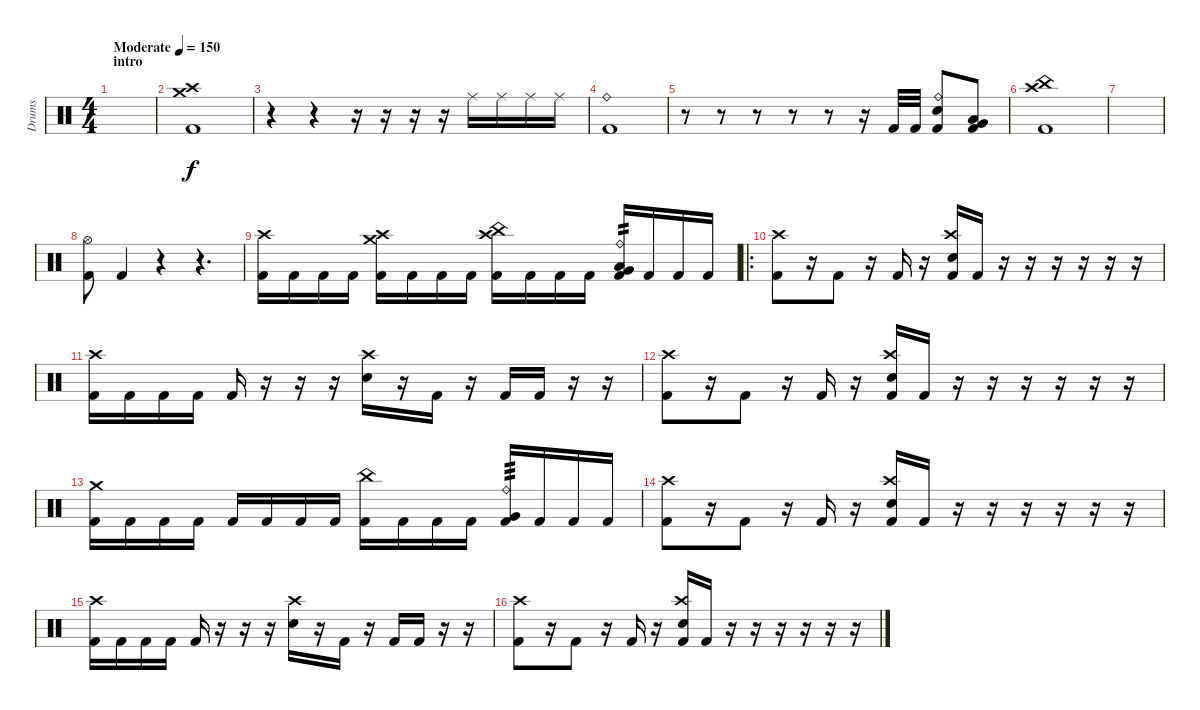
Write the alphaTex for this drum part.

\track ("Drums" "Drums") {instrument percussion}
\staff {score}
\articulation defaults
\ts (4 4)
\section ("" "intro")
\tempo (150 "Moderate")
\clef neutral
\ks c
|
("Kick (hit) 2" "Crash medium (hit)" "Crash high (hit)").1 |
r.4 r.4 r.16 r.16 r.16 r.16 "Ride (middle)".16 "Ride (middle)".16 "Ride (middle)".16 "Ride (middle)".16 |
("Kick (hit) 2" "Ride (bell)").1 |
r.8 r.8 r.8 r.8 r.8 r.16 "Kick (hit) 2".32 "Kick (hit) 2".32 ("Electric Snare (hit)" "Kick (hit) 2" "Ride (bell)").8 ("Kick (hit) 2" "Low Tom (hit)" "Very Low Tom (hit)").8 |
("Kick (hit) 2" "China (hit)" "Crash high (hit)").1 |
|
("Kick (hit) 2" "Hi-Hat (open)").8 "Kick (hit) 2".4 r.4 r.4{d} |
("Kick (hit) 2" "Crash high (hit)").16 "Kick (hit) 2".16 "Kick (hit) 2".16 "Kick (hit) 2".16 ("Kick (hit) 2" "Crash medium (hit)" "Crash high (hit)").16 "Kick (hit) 2".16 "Kick (hit) 2".16 "Kick (hit) 2".16 ("Kick (hit) 2" "China (hit)" "Crash high (hit)").16 "Kick (hit) 2".16 "Kick (hit) 2".16 "Kick (hit) 2".16 ("Kick (hit) 2" "Ride (bell)" "Low Tom (hit)" "Very Low Tom (hit)").16{tp 2} "Kick (hit) 2".16 "Kick (hit) 2".16 "Kick (hit) 2".16 |
\ro
("Kick (hit) 2" "Crash high (hit)").8 r.16 "Kick (hit) 2".8 r.16 "Kick (hit) 2".16 r.16 ("Electric Snare (hit)" "Kick (hit) 2" "Crash high (hit)").16 "Kick (hit) 2".16 r.16 r.16 r.16 r.16 r.16 r.16 |
("Kick (hit) 2" "Crash high (hit)").16 "Kick (hit) 2".16 "Kick (hit) 2".16 "Kick (hit) 2".16 "Kick (hit) 2".16 r.16 r.16 r.16 ("Electric Snare (hit)" "Crash high (hit)").16 r.16 "Kick (hit) 2".16 r.16 "Kick (hit) 2".16 "Kick (hit) 2".16 r.16 r.16 |
("Kick (hit) 2" "Crash high (hit)").8 r.16 "Kick (hit) 2".8 r.16 "Kick (hit) 2".16 r.16 ("Electric Snare (hit)" "Kick (hit) 2" "Crash high (hit)").16 "Kick (hit) 2".16 r.16 r.16 r.16 r.16 r.16 r.16 |
("Kick (hit) 2" "Crash medium (hit)").16 "Kick (hit) 2".16 "Kick (hit) 2".16 "Kick (hit) 2".16 "Kick (hit) 2".16 "Kick (hit) 2".16 "Kick (hit) 2".16 "Kick (hit) 2".16 ("Kick (hit) 2" "China (hit)").16 "Kick (hit) 2".16 "Kick (hit) 2".16 "Kick (hit) 2".16 ("Very Low Tom (hit)" "Kick (hit) 2" "Ride (bell)").16{tp 3} "Kick (hit) 2".16 "Kick (hit) 2".16 "Kick (hit) 2".16 |
("Kick (hit) 2" "Crash high (hit)").8 r.16 "Kick (hit) 2".8 r.16 "Kick (hit) 2".16 r.16 ("Electric Snare (hit)" "Kick (hit) 2" "Crash high (hit)").16 "Kick (hit) 2".16 r.16 r.16 r.16 r.16 r.16 r.16 |
("Kick (hit) 2" "Crash high (hit)").16 "Kick (hit) 2".16 "Kick (hit) 2".16 "Kick (hit) 2".16 "Kick (hit) 2".16 r.16 r.16 r.16 ("Electric Snare (hit)" "Crash high (hit)").16 r.16 "Kick (hit) 2".16 r.16 "Kick (hit) 2".16 "Kick (hit) 2".16 r.16 r.16 |
("Kick (hit) 2" "Crash high (hit)").8 r.16 "Kick (hit) 2".8 r.16 "Kick (hit) 2".16 r.16 ("Electric Snare (hit)" "Kick (hit) 2" "Crash high (hit)").16 "Kick (hit) 2".16 r.16 r.16 r.16 r.16 r.16 r.16
